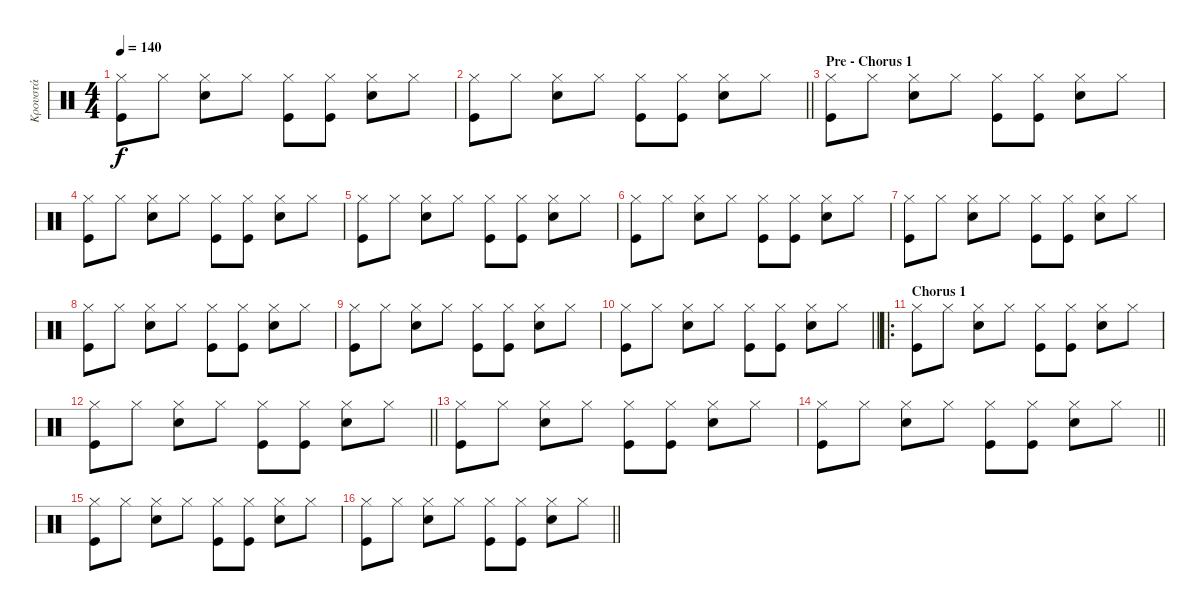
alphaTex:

\track ("Κρουστά" "Κρουστά") {instrument percussion}
\staff {score}
\articulation defaults
\ts (4 4)
\tempo 140
\clef neutral
\ks c
("Hi-Hat (closed)" "Kick (hit)").8{dy f} "Hi-Hat (closed)".8 ("Hi-Hat (closed)" "Snare (hit) 2").8 "Hi-Hat (closed)".8 ("Hi-Hat (closed)" "Kick (hit)").8 ("Hi-Hat (closed)" "Kick (hit)").8 ("Hi-Hat (closed)" "Snare (hit) 2").8 "Hi-Hat (closed)".8 |
\barLineRight lightlight
("Hi-Hat (closed)" "Kick (hit)").8 "Hi-Hat (closed)".8 ("Hi-Hat (closed)" "Snare (hit) 2").8 "Hi-Hat (closed)".8 ("Hi-Hat (closed)" "Kick (hit)").8 ("Hi-Hat (closed)" "Kick (hit)").8 ("Hi-Hat (closed)" "Snare (hit) 2").8 "Hi-Hat (closed)".8 |
\section ("" "Pre - Chorus 1")
("Hi-Hat (closed)" "Kick (hit)").8 "Hi-Hat (closed)".8 ("Hi-Hat (closed)" "Snare (hit) 2").8 "Hi-Hat (closed)".8 ("Hi-Hat (closed)" "Kick (hit)").8 ("Hi-Hat (closed)" "Kick (hit)").8 ("Hi-Hat (closed)" "Snare (hit) 2").8 "Hi-Hat (closed)".8 |
("Hi-Hat (closed)" "Kick (hit)").8 "Hi-Hat (closed)".8 ("Hi-Hat (closed)" "Snare (hit) 2").8 "Hi-Hat (closed)".8 ("Hi-Hat (closed)" "Kick (hit)").8 ("Hi-Hat (closed)" "Kick (hit)").8 ("Hi-Hat (closed)" "Snare (hit) 2").8 "Hi-Hat (closed)".8 |
("Hi-Hat (closed)" "Kick (hit)").8 "Hi-Hat (closed)".8 ("Hi-Hat (closed)" "Snare (hit) 2").8 "Hi-Hat (closed)".8 ("Hi-Hat (closed)" "Kick (hit)").8 ("Hi-Hat (closed)" "Kick (hit)").8 ("Hi-Hat (closed)" "Snare (hit) 2").8 "Hi-Hat (closed)".8 |
("Hi-Hat (closed)" "Kick (hit)").8 "Hi-Hat (closed)".8 ("Hi-Hat (closed)" "Snare (hit) 2").8 "Hi-Hat (closed)".8 ("Hi-Hat (closed)" "Kick (hit)").8 ("Hi-Hat (closed)" "Kick (hit)").8 ("Hi-Hat (closed)" "Snare (hit) 2").8 "Hi-Hat (closed)".8 |
("Hi-Hat (closed)" "Kick (hit)").8 "Hi-Hat (closed)".8 ("Hi-Hat (closed)" "Snare (hit) 2").8 "Hi-Hat (closed)".8 ("Hi-Hat (closed)" "Kick (hit)").8 ("Hi-Hat (closed)" "Kick (hit)").8 ("Hi-Hat (closed)" "Snare (hit) 2").8 "Hi-Hat (closed)".8 |
("Hi-Hat (closed)" "Kick (hit)").8 "Hi-Hat (closed)".8 ("Hi-Hat (closed)" "Snare (hit) 2").8 "Hi-Hat (closed)".8 ("Hi-Hat (closed)" "Kick (hit)").8 ("Hi-Hat (closed)" "Kick (hit)").8 ("Hi-Hat (closed)" "Snare (hit) 2").8 "Hi-Hat (closed)".8 |
("Hi-Hat (closed)" "Kick (hit)").8 "Hi-Hat (closed)".8 ("Hi-Hat (closed)" "Snare (hit) 2").8 "Hi-Hat (closed)".8 ("Hi-Hat (closed)" "Kick (hit)").8 ("Hi-Hat (closed)" "Kick (hit)").8 ("Hi-Hat (closed)" "Snare (hit) 2").8 "Hi-Hat (closed)".8 |
\barLineRight lightlight
("Hi-Hat (closed)" "Kick (hit)").8 "Hi-Hat (closed)".8 ("Hi-Hat (closed)" "Snare (hit) 2").8 "Hi-Hat (closed)".8 ("Hi-Hat (closed)" "Kick (hit)").8 ("Hi-Hat (closed)" "Kick (hit)").8 ("Hi-Hat (closed)" "Snare (hit) 2").8 "Hi-Hat (closed)".8 |
\ro
\section ("" "Chorus 1")
("Hi-Hat (closed)" "Kick (hit)").8 "Hi-Hat (closed)".8 ("Hi-Hat (closed)" "Snare (hit) 2").8 "Hi-Hat (closed)".8 ("Hi-Hat (closed)" "Kick (hit)").8 ("Hi-Hat (closed)" "Kick (hit)").8 ("Hi-Hat (closed)" "Snare (hit) 2").8 "Hi-Hat (closed)".8 |
\barLineRight lightlight
("Hi-Hat (closed)" "Kick (hit)").8 "Hi-Hat (closed)".8 ("Hi-Hat (closed)" "Snare (hit) 2").8 "Hi-Hat (closed)".8 ("Hi-Hat (closed)" "Kick (hit)").8 ("Hi-Hat (closed)" "Kick (hit)").8 ("Hi-Hat (closed)" "Snare (hit) 2").8 "Hi-Hat (closed)".8 |
("Hi-Hat (closed)" "Kick (hit)").8 "Hi-Hat (closed)".8 ("Hi-Hat (closed)" "Snare (hit) 2").8 "Hi-Hat (closed)".8 ("Hi-Hat (closed)" "Kick (hit)").8 ("Hi-Hat (closed)" "Kick (hit)").8 ("Hi-Hat (closed)" "Snare (hit) 2").8 "Hi-Hat (closed)".8 |
\barLineRight lightlight
("Hi-Hat (closed)" "Kick (hit)").8 "Hi-Hat (closed)".8 ("Hi-Hat (closed)" "Snare (hit) 2").8 "Hi-Hat (closed)".8 ("Hi-Hat (closed)" "Kick (hit)").8 ("Hi-Hat (closed)" "Kick (hit)").8 ("Hi-Hat (closed)" "Snare (hit) 2").8 "Hi-Hat (closed)".8 |
("Hi-Hat (closed)" "Kick (hit)").8 "Hi-Hat (closed)".8 ("Hi-Hat (closed)" "Snare (hit) 2").8 "Hi-Hat (closed)".8 ("Hi-Hat (closed)" "Kick (hit)").8 ("Hi-Hat (closed)" "Kick (hit)").8 ("Hi-Hat (closed)" "Snare (hit) 2").8 "Hi-Hat (closed)".8 |
\barLineRight lightlight
("Hi-Hat (closed)" "Kick (hit)").8 "Hi-Hat (closed)".8 ("Hi-Hat (closed)" "Snare (hit) 2").8 "Hi-Hat (closed)".8 ("Hi-Hat (closed)" "Kick (hit)").8 ("Hi-Hat (closed)" "Kick (hit)").8 ("Hi-Hat (closed)" "Snare (hit) 2").8 "Hi-Hat (closed)".8
